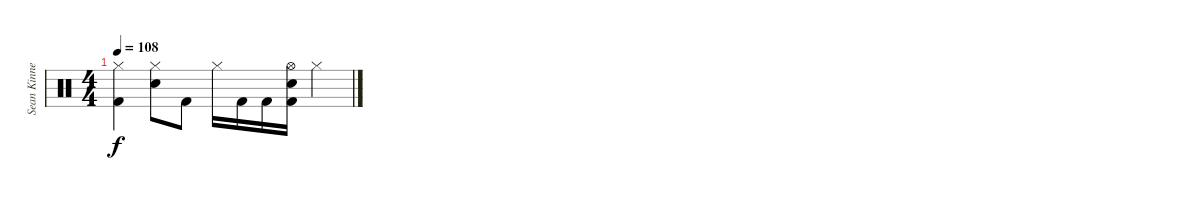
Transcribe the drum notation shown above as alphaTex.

\track ("Sean Kinney- Drums" "Sean Kinne") {instrument percussion}
\staff {score}
\articulation defaults
\ts (4 4)
\tempo 108
\clef neutral
\ks c
("Hi-Hat (closed)" "Kick (hit) 2").4{dy f} ("Hi-Hat (closed)" "Electric Snare (hit)").8 "Kick (hit) 2".8 "Hi-Hat (closed)".16 "Kick (hit) 2".16 "Kick (hit) 2".16 ("Hi-Hat (open)" "Electric Snare (hit)" "Kick (hit) 2").16 "Hi-Hat (closed)".4
